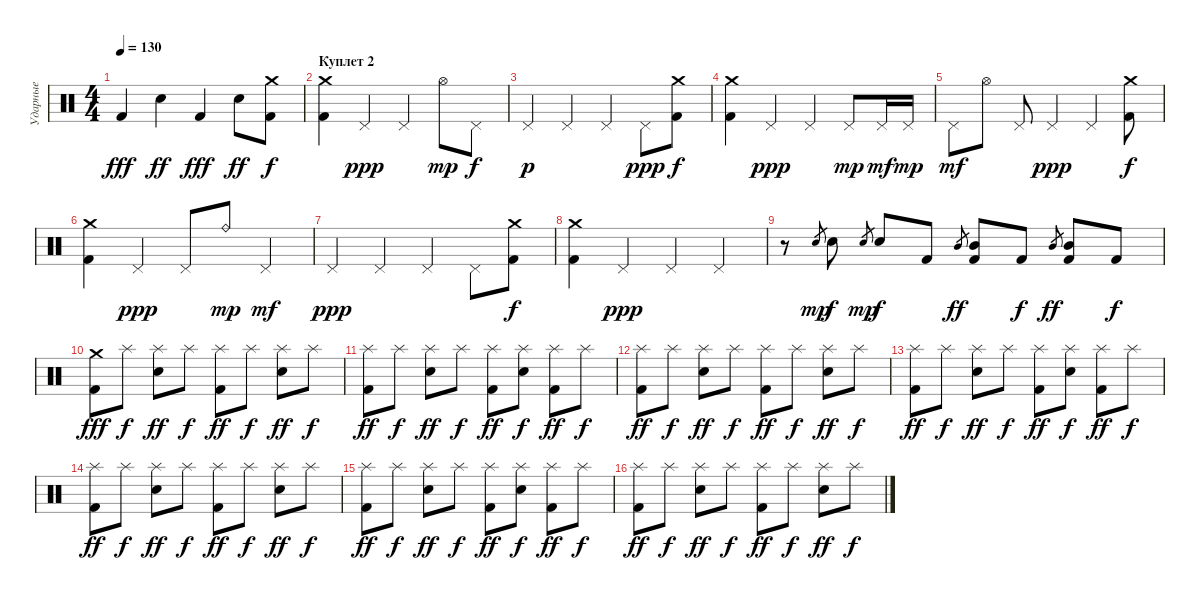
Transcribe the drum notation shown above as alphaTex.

\track ("Ударные" "Ударные") {instrument percussion}
\staff {score}
\articulation defaults
\ts (4 4)
\tempo 130
\clef neutral
\ks c "Kick (hit) 2".4{dy fff} "Electric Snare (hit)".4{dy ff} "Kick (hit) 2".4{dy fff} "Electric Snare (hit)".8{dy ff}
("Kick (hit) 2" "Crash medium (hit)").8{dy f} |
\section ("" "Куплет 2")
("Kick (hit) 2" "Crash medium (hit)").4 "Pedal Hi-Hat (hit)".4{dy ppp} "Pedal Hi-Hat (hit)".4 "Hi-Hat (open)".8{dy mp} "Pedal Hi-Hat (hit)".8{dy f} |
"Pedal Hi-Hat (hit)".4{dy p} "Pedal Hi-Hat (hit)".4 "Pedal Hi-Hat (hit)".4 "Pedal Hi-Hat (hit)".8{dy ppp} ("Kick (hit) 2" "Crash medium (hit)").8{dy f} |
("Kick (hit) 2" "Crash medium (hit)").4 "Pedal Hi-Hat (hit)".4{dy ppp} "Pedal Hi-Hat (hit)".4 "Pedal Hi-Hat (hit)".8{dy mp} "Pedal Hi-Hat (hit)".16{dy mf} "Pedal Hi-Hat (hit)".16{dy mp} |
"Pedal Hi-Hat (hit)".8{dy mf} "Hi-Hat (open)".8 "Pedal Hi-Hat (hit)".8 "Pedal Hi-Hat (hit)".4{dy ppp} "Pedal Hi-Hat (hit)".4 ("Kick (hit) 2" "Crash medium (hit)").8{dy f} |
("Kick (hit) 2" "Crash medium (hit)").4 "Pedal Hi-Hat (hit)".4{dy ppp} "Pedal Hi-Hat (hit)".8 "Ride (bell)".8{dy mp} "Pedal Hi-Hat (hit)".4{dy mf} |
"Pedal Hi-Hat (hit)".4{dy ppp} "Pedal Hi-Hat (hit)".4 "Pedal Hi-Hat (hit)".4 "Pedal Hi-Hat (hit)".8 ("Kick (hit) 2" "Crash medium (hit)").8{dy f} |
("Kick (hit) 2" "Crash medium (hit)").4 "Pedal Hi-Hat (hit)".4{dy ppp} "Pedal Hi-Hat (hit)".4 "Pedal Hi-Hat (hit)".4 |
r.8 "Electric Snare (hit)".8{gr dy mp} "Electric Snare (hit)".8{dy f} "Electric Snare (hit)".8{gr dy mp} "Electric Snare (hit)".8{dy f} "Kick (hit) 2".8 "Mid Tom (hit)".8{gr dy ff} ("Kick (hit) 2" "Mid Tom (hit)").8 "Kick (hit) 2".8{dy f} "Mid Tom (hit)".8{gr dy ff} ("Kick (hit) 2" "Mid Tom (hit)").8 "Kick (hit) 2".8{dy f} |
("Kick (hit) 2" "Crash medium (hit)").8{dy fff} "Splash (hit)".8{dy f} ("Electric Snare (hit)" "Splash (hit)").8{dy ff} "Splash (hit)".8{dy f} ("Kick (hit) 2" "Splash (hit)").8{dy ff} "Splash (hit)".8{dy f} ("Electric Snare (hit)" "Splash (hit)").8{dy ff} "Splash (hit)".8{dy f} |
("Kick (hit) 2" "Splash (hit)").8{dy ff} "Splash (hit)".8{dy f} ("Electric Snare (hit)" "Splash (hit)").8{dy ff} "Splash (hit)".8{dy f} ("Kick (hit) 2" "Splash (hit)").8{dy ff} ("Electric Snare (hit)" "Splash (hit)").8{dy f} ("Kick (hit) 2" "Splash (hit)").8{dy ff} "Splash (hit)".8{dy f} |
("Kick (hit) 2" "Splash (hit)").8{dy ff} "Splash (hit)".8{dy f} ("Electric Snare (hit)" "Splash (hit)").8{dy ff} "Splash (hit)".8{dy f} ("Kick (hit) 2" "Splash (hit)").8{dy ff} "Splash (hit)".8{dy f} ("Electric Snare (hit)" "Splash (hit)").8{dy ff} "Splash (hit)".8{dy f} |
("Kick (hit) 2" "Splash (hit)").8{dy ff} "Splash (hit)".8{dy f} ("Electric Snare (hit)" "Splash (hit)").8{dy ff} "Splash (hit)".8{dy f} ("Kick (hit) 2" "Splash (hit)").8{dy ff} ("Electric Snare (hit)" "Splash (hit)").8{dy f} ("Kick (hit) 2" "Splash (hit)").8{dy ff} "Splash (hit)".8{dy f} |
("Kick (hit) 2" "Splash (hit)").8{dy ff} "Splash (hit)".8{dy f} ("Electric Snare (hit)" "Splash (hit)").8{dy ff} "Splash (hit)".8{dy f} ("Kick (hit) 2" "Splash (hit)").8{dy ff} "Splash (hit)".8{dy f} ("Electric Snare (hit)" "Splash (hit)").8{dy ff} "Splash (hit)".8{dy f} |
("Kick (hit) 2" "Splash (hit)").8{dy ff} "Splash (hit)".8{dy f} ("Electric Snare (hit)" "Splash (hit)").8{dy ff} "Splash (hit)".8{dy f} ("Kick (hit) 2" "Splash (hit)").8{dy ff} ("Electric Snare (hit)" "Splash (hit)").8{dy f} ("Kick (hit) 2" "Splash (hit)").8{dy ff} "Splash (hit)".8{dy f} |
("Kick (hit) 2" "Splash (hit)").8{dy ff} "Splash (hit)".8{dy f} ("Electric Snare (hit)" "Splash (hit)").8{dy ff} "Splash (hit)".8{dy f} ("Kick (hit) 2" "Splash (hit)").8{dy ff} "Splash (hit)".8{dy f} ("Electric Snare (hit)" "Splash (hit)").8{dy ff} "Splash (hit)".8{dy f}
